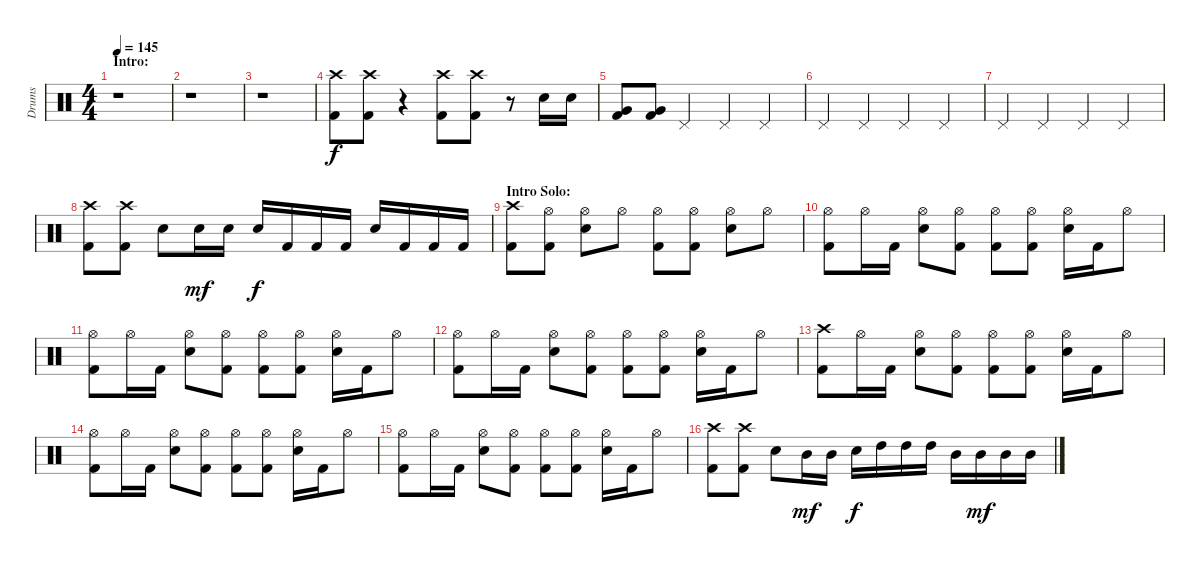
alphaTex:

\track ("Drums" "Drums") {instrument percussion}
\staff {score}
\articulation defaults
\ts (4 4)
\section ("" "Intro:")
\tempo 145
\clef neutral
\ks c
r.1{dy f} |
r.1 |
r.1 |
("Crash high (hit)" "Kick (hit) 2").8 ("Crash high (hit)" "Kick (hit) 2").8 r.4 ("Crash high (hit)" "Kick (hit) 2").8 ("Crash high (hit)" "Kick (hit) 2").8 r.8 "Snare (hit) 2".16 "Snare (hit) 2".16 |
("Very Low Tom (hit)" "Kick (hit) 2").8 ("Very Low Tom (hit)" "Kick (hit) 2").8 "Pedal Hi-Hat (hit)".4 "Pedal Hi-Hat (hit)".4 "Pedal Hi-Hat (hit)".4 |
"Pedal Hi-Hat (hit)".4 "Pedal Hi-Hat (hit)".4 "Pedal Hi-Hat (hit)".4 "Pedal Hi-Hat (hit)".4 |
"Pedal Hi-Hat (hit)".4 "Pedal Hi-Hat (hit)".4 "Pedal Hi-Hat (hit)".4 "Pedal Hi-Hat (hit)".4 |
("Crash high (hit)" "Kick (hit) 2").8 ("Crash high (hit)" "Kick (hit) 2").8 "Snare (hit) 2".8 "Snare (hit) 2".16{dy mf} "Snare (hit) 2".16 "Snare (hit) 2".16{dy f} "Kick (hit) 2".16 "Kick (hit) 2".16 "Kick (hit) 2".16 "Snare (hit) 2".16 "Kick (hit) 2".16 "Kick (hit) 2".16 "Kick (hit) 2".16 |
\section ("" "Intro Solo:")
("Crash high (hit)" "Kick (hit) 2").8 ("Hi-Hat (open)" "Kick (hit) 2").8 ("Hi-Hat (open)" "Snare (hit) 2").8 "Hi-Hat (open)".8 ("Hi-Hat (open)" "Kick (hit) 2").8 ("Hi-Hat (open)" "Kick (hit) 2").8 ("Hi-Hat (open)" "Snare (hit) 2").8 "Hi-Hat (open)".8 |
("Hi-Hat (open)" "Kick (hit) 2").8 "Hi-Hat (open)".16 "Kick (hit) 2".16 ("Hi-Hat (open)" "Snare (hit) 2").8 ("Hi-Hat (open)" "Kick (hit) 2").8 ("Hi-Hat (open)" "Kick (hit) 2").8 ("Hi-Hat (open)" "Kick (hit) 2").8 ("Hi-Hat (open)" "Snare (hit) 2").16 "Kick (hit) 2".16 "Hi-Hat (open)".8 |
("Hi-Hat (open)" "Kick (hit) 2").8 "Hi-Hat (open)".16 "Kick (hit) 2".16 ("Hi-Hat (open)" "Snare (hit) 2").8 ("Hi-Hat (open)" "Kick (hit) 2").8 ("Hi-Hat (open)" "Kick (hit) 2").8 ("Hi-Hat (open)" "Kick (hit) 2").8 ("Hi-Hat (open)" "Snare (hit) 2").16 "Kick (hit) 2".16 "Hi-Hat (open)".8 |
("Hi-Hat (open)" "Kick (hit) 2").8 "Hi-Hat (open)".16 "Kick (hit) 2".16 ("Hi-Hat (open)" "Snare (hit) 2").8 ("Hi-Hat (open)" "Kick (hit) 2").8 ("Hi-Hat (open)" "Kick (hit) 2").8 ("Hi-Hat (open)" "Kick (hit) 2").8 ("Hi-Hat (open)" "Snare (hit) 2").16 "Kick (hit) 2".16 "Hi-Hat (open)".8 |
("Crash high (hit)" "Kick (hit) 2").8 "Hi-Hat (open)".16 "Kick (hit) 2".16 ("Hi-Hat (open)" "Snare (hit) 2").8 ("Hi-Hat (open)" "Kick (hit) 2").8 ("Hi-Hat (open)" "Kick (hit) 2").8 ("Hi-Hat (open)" "Kick (hit) 2").8 ("Hi-Hat (open)" "Snare (hit) 2").16 "Kick (hit) 2".16 "Hi-Hat (open)".8 |
("Hi-Hat (open)" "Kick (hit) 2").8 "Hi-Hat (open)".16 "Kick (hit) 2".16 ("Hi-Hat (open)" "Snare (hit) 2").8 ("Hi-Hat (open)" "Kick (hit) 2").8 ("Hi-Hat (open)" "Kick (hit) 2").8 ("Hi-Hat (open)" "Kick (hit) 2").8 ("Hi-Hat (open)" "Snare (hit) 2").16 "Kick (hit) 2".16 "Hi-Hat (open)".8 |
("Hi-Hat (open)" "Kick (hit) 2").8 "Hi-Hat (open)".16 "Kick (hit) 2".16 ("Hi-Hat (open)" "Snare (hit) 2").8 ("Hi-Hat (open)" "Kick (hit) 2").8 ("Hi-Hat (open)" "Kick (hit) 2").8 ("Hi-Hat (open)" "Kick (hit) 2").8 ("Hi-Hat (open)" "Snare (hit) 2").16 "Kick (hit) 2".16 "Hi-Hat (open)".8 |
("Crash high (hit)" "Kick (hit) 2").8 ("Crash high (hit)" "Kick (hit) 2").8 "Snare (hit) 2".8 "Mid Tom (hit)".16{dy mf} "Mid Tom (hit)".16 "Snare (hit) 2".16{dy f} "High Tom (hit)".16 "High Tom (hit)".16 "High Tom (hit)".16 "Mid Tom (hit)".16 "Mid Tom (hit)".16{dy mf} "Mid Tom (hit)".16 "Mid Tom (hit)".16
